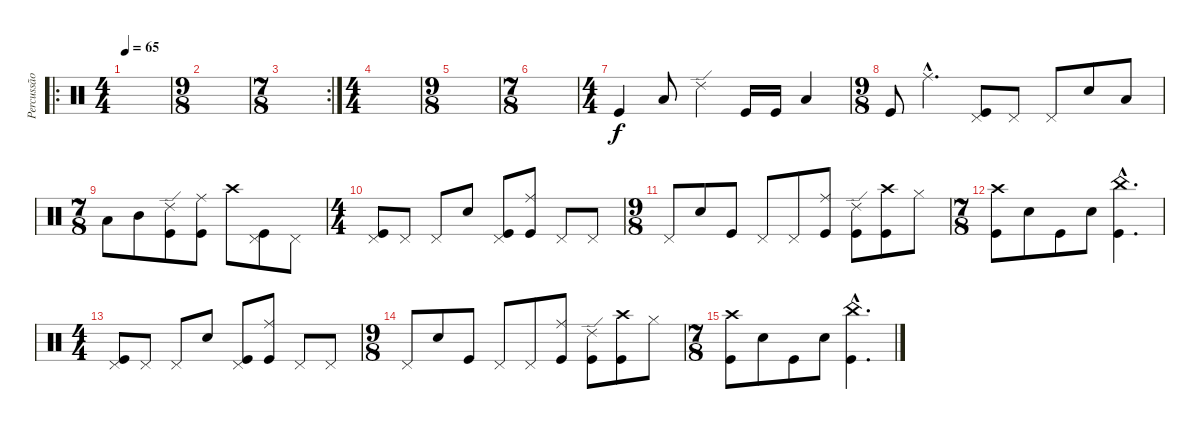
\track ("Percussão" "Percussão") {instrument percussion}
\staff {score}
\articulation defaults
\ro
\ts (4 4)
\tempo 65
\clef neutral
\ks c
|
\ts (9 8)
|
\rc 2
\ts (7 8)
|
\ts (4 4)
|
\ts (9 8)
|
\ts (7 8)
|
\ts (4 4)
"Kick (hit)".4 "Low Floor Tom (hit)".8 "Ride (edge) 2".4 "Kick (hit)".16 "Kick (hit)".16 "Low Floor Tom (hit)".4 |
\ts (9 8)
"Kick (hit)".8 "Ride (middle)"{hac}.4{d} ("Kick (hit)" "Pedal Hi-Hat (hit)").8 "Pedal Hi-Hat (hit)".8 "Pedal Hi-Hat (hit)".8 "Snare (hit) 2".8 "Low Floor Tom (hit)".8 |
\ts (7 8)
"Low Tom (hit)".8 "Mid Tom (hit)".8 ("Kick (hit)" "Ride (edge) 2").8 ("Kick (hit)" "Ride (middle)").8 "Crash high (hit)".8 ("Kick (hit)" "Pedal Hi-Hat (hit)").8 "Pedal Hi-Hat (hit)".8 |
\ts (4 4)
("Kick (hit)" "Pedal Hi-Hat (hit)").8 "Pedal Hi-Hat (hit)".8 "Pedal Hi-Hat (hit)".8 "Snare (hit) 2".8 ("Kick (hit)" "Pedal Hi-Hat (hit)").8 ("Kick (hit)" "Ride (middle)").8 "Pedal Hi-Hat (hit)".8 "Pedal Hi-Hat (hit)".8 |
\ts (9 8)
"Pedal Hi-Hat (hit)".8 "Snare (hit) 2".8 "Kick (hit)".8 "Pedal Hi-Hat (hit)".8 "Pedal Hi-Hat (hit)".8 ("Kick (hit)" "Ride (middle)").8 ("Kick (hit)" "Ride (edge) 2").8 ("Kick (hit)" "Crash high (hit)").8 "Hi-Hat (closed)".8 |
\ts (7 8)
("Kick (hit)" "Crash high (hit)").8 "Snare (hit) 2".8 "Kick (hit)".8 "Snare (hit) 2".8 ("Kick (hit)"{hac} "China (hit)"{hac}).4{d} |
\ts (4 4)
("Kick (hit)" "Pedal Hi-Hat (hit)").8 "Pedal Hi-Hat (hit)".8 "Pedal Hi-Hat (hit)".8 "Snare (hit) 2".8 ("Kick (hit)" "Pedal Hi-Hat (hit)").8 ("Kick (hit)" "Ride (middle)").8 "Pedal Hi-Hat (hit)".8 "Pedal Hi-Hat (hit)".8 |
\ts (9 8)
"Pedal Hi-Hat (hit)".8 "Snare (hit) 2".8 "Kick (hit)".8 "Pedal Hi-Hat (hit)".8 "Pedal Hi-Hat (hit)".8 ("Kick (hit)" "Ride (middle)").8 ("Kick (hit)" "Ride (edge) 2").8 ("Kick (hit)" "Crash high (hit)").8 "Hi-Hat (closed)".8 |
\ts (7 8)
("Kick (hit)" "Crash high (hit)").8 "Snare (hit) 2".8 "Kick (hit)".8 "Snare (hit) 2".8 ("Kick (hit)"{hac} "China (hit)"{hac}).4{d}
